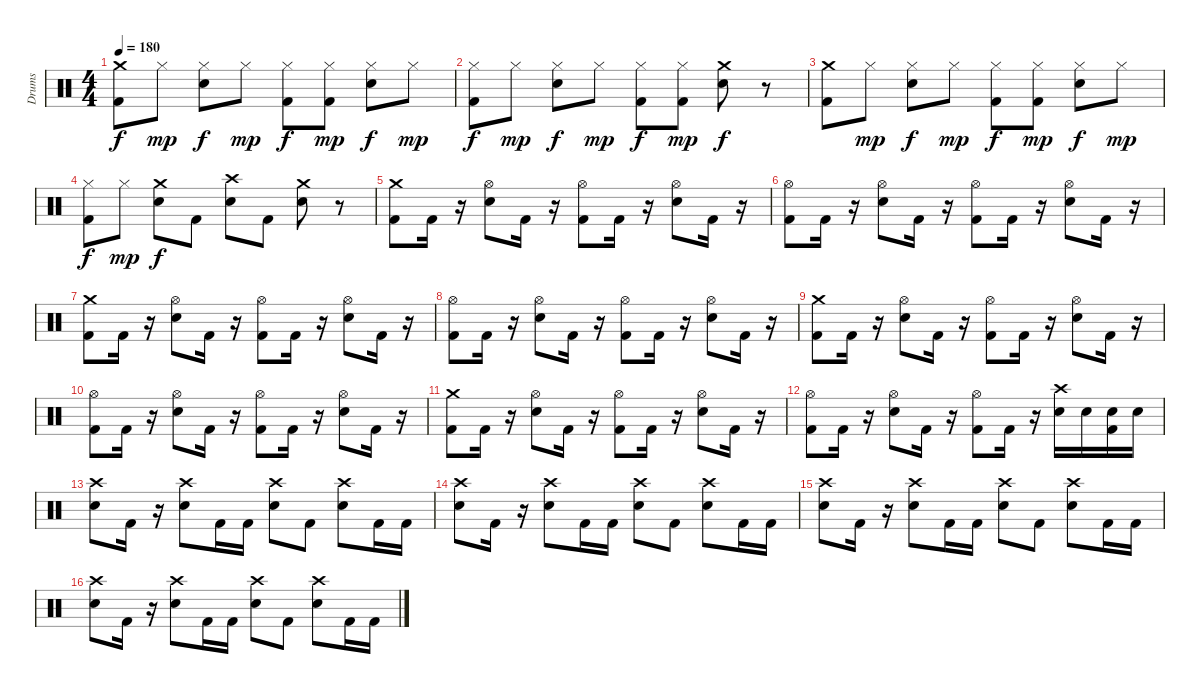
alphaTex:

\track ("Drums" "Drums") {instrument percussion}
\staff {score}
\articulation defaults
\ts (4 4)
\tempo 180
\clef neutral
\ks c
("Kick (hit) 2" "Crash medium (hit)").8{dy f} "Hi-Hat (closed)".8{dy mp} ("Electric Snare (hit)" "Hi-Hat (closed)").8{dy f} "Hi-Hat (closed)".8{dy mp} ("Kick (hit) 2" "Hi-Hat (closed)").8{dy f} ("Kick (hit) 2" "Hi-Hat (closed)").8{dy mp} ("Electric Snare (hit)" "Hi-Hat (closed)").8{dy f} "Hi-Hat (closed)".8{dy mp} |
("Kick (hit) 2" "Hi-Hat (closed)").8{dy f} "Hi-Hat (closed)".8{dy mp} ("Electric Snare (hit)" "Hi-Hat (closed)").8{dy f} "Hi-Hat (closed)".8{dy mp} ("Kick (hit) 2" "Hi-Hat (closed)").8{dy f} ("Kick (hit) 2" "Hi-Hat (closed)").8{dy mp} ("Electric Snare (hit)" "Crash medium (hit)").8{dy f} r.8 |
("Kick (hit) 2" "Crash medium (hit)").8 "Hi-Hat (closed)".8{dy mp} ("Electric Snare (hit)" "Hi-Hat (closed)").8{dy f} "Hi-Hat (closed)".8{dy mp} ("Kick (hit) 2" "Hi-Hat (closed)").8{dy f} ("Kick (hit) 2" "Hi-Hat (closed)").8{dy mp} ("Electric Snare (hit)" "Hi-Hat (closed)").8{dy f} "Hi-Hat (closed)".8{dy mp} |
("Kick (hit) 2" "Hi-Hat (closed)").8{dy f} "Hi-Hat (closed)".8{dy mp} ("Electric Snare (hit)" "Crash medium (hit)").8{dy f} "Kick (hit) 2".8 ("Crash high (hit)" "Electric Snare (hit)").8 "Kick (hit) 2".8 ("Crash medium (hit)" "Electric Snare (hit)").8 r.8 |
("Kick (hit) 2" "Crash medium (hit)").8 "Kick (hit) 2".16 r.16 ("Electric Snare (hit)" "Hi-Hat (open)").8 "Kick (hit) 2".16 r.16 ("Kick (hit) 2" "Hi-Hat (open)").8 "Kick (hit) 2".16 r.16 ("Electric Snare (hit)" "Hi-Hat (open)").8 "Kick (hit) 2".16 r.16 |
("Kick (hit) 2" "Hi-Hat (open)").8 "Kick (hit) 2".16 r.16 ("Electric Snare (hit)" "Hi-Hat (open)").8 "Kick (hit) 2".16 r.16 ("Kick (hit) 2" "Hi-Hat (open)").8 "Kick (hit) 2".16 r.16 ("Electric Snare (hit)" "Hi-Hat (open)").8 "Kick (hit) 2".16 r.16 |
("Kick (hit) 2" "Crash medium (hit)").8 "Kick (hit) 2".16 r.16 ("Electric Snare (hit)" "Hi-Hat (open)").8 "Kick (hit) 2".16 r.16 ("Kick (hit) 2" "Hi-Hat (open)").8 "Kick (hit) 2".16 r.16 ("Electric Snare (hit)" "Hi-Hat (open)").8 "Kick (hit) 2".16 r.16 |
("Kick (hit) 2" "Hi-Hat (open)").8 "Kick (hit) 2".16 r.16 ("Electric Snare (hit)" "Hi-Hat (open)").8 "Kick (hit) 2".16 r.16 ("Kick (hit) 2" "Hi-Hat (open)").8 "Kick (hit) 2".16 r.16 ("Electric Snare (hit)" "Hi-Hat (open)").8 "Kick (hit) 2".16 r.16 |
("Kick (hit) 2" "Crash medium (hit)").8 "Kick (hit) 2".16 r.16 ("Electric Snare (hit)" "Hi-Hat (open)").8 "Kick (hit) 2".16 r.16 ("Kick (hit) 2" "Hi-Hat (open)").8 "Kick (hit) 2".16 r.16 ("Electric Snare (hit)" "Hi-Hat (open)").8 "Kick (hit) 2".16 r.16 |
("Kick (hit) 2" "Hi-Hat (open)").8 "Kick (hit) 2".16 r.16 ("Electric Snare (hit)" "Hi-Hat (open)").8 "Kick (hit) 2".16 r.16 ("Kick (hit) 2" "Hi-Hat (open)").8 "Kick (hit) 2".16 r.16 ("Electric Snare (hit)" "Hi-Hat (open)").8 "Kick (hit) 2".16 r.16 |
("Kick (hit) 2" "Crash medium (hit)").8 "Kick (hit) 2".16 r.16 ("Electric Snare (hit)" "Hi-Hat (open)").8 "Kick (hit) 2".16 r.16 ("Kick (hit) 2" "Hi-Hat (open)").8 "Kick (hit) 2".16 r.16 ("Electric Snare (hit)" "Hi-Hat (open)").8 "Kick (hit) 2".16 r.16 |
("Kick (hit) 2" "Hi-Hat (open)").8 "Kick (hit) 2".16 r.16 ("Electric Snare (hit)" "Hi-Hat (open)").8 "Kick (hit) 2".16 r.16 ("Kick (hit) 2" "Hi-Hat (open)").8 "Kick (hit) 2".16 r.16 ("Electric Snare (hit)" "Crash high (hit)").16 "Electric Snare (hit)".16 ("Electric Snare (hit)" "Kick (hit) 2").16 "Electric Snare (hit)".16 |
("Electric Snare (hit)" "Crash high (hit)").8 "Kick (hit) 2".16 r.16 ("Electric Snare (hit)" "Crash high (hit)").8 "Kick (hit) 2".16 "Kick (hit) 2".16 ("Electric Snare (hit)" "Crash high (hit)").8 "Kick (hit) 2".8 ("Electric Snare (hit)" "Crash high (hit)").8 "Kick (hit) 2".16 "Kick (hit) 2".16 |
("Electric Snare (hit)" "Crash high (hit)").8 "Kick (hit) 2".16 r.16 ("Electric Snare (hit)" "Crash high (hit)").8 "Kick (hit) 2".16 "Kick (hit) 2".16 ("Electric Snare (hit)" "Crash high (hit)").8 "Kick (hit) 2".8 ("Electric Snare (hit)" "Crash high (hit)").8 "Kick (hit) 2".16 "Kick (hit) 2".16 |
("Electric Snare (hit)" "Crash high (hit)").8 "Kick (hit) 2".16 r.16 ("Electric Snare (hit)" "Crash high (hit)").8 "Kick (hit) 2".16 "Kick (hit) 2".16 ("Electric Snare (hit)" "Crash high (hit)").8 "Kick (hit) 2".8 ("Electric Snare (hit)" "Crash high (hit)").8 "Kick (hit) 2".16 "Kick (hit) 2".16 |
("Electric Snare (hit)" "Crash high (hit)").8 "Kick (hit) 2".16 r.16 ("Electric Snare (hit)" "Crash high (hit)").8 "Kick (hit) 2".16 "Kick (hit) 2".16 ("Electric Snare (hit)" "Crash high (hit)").8 "Kick (hit) 2".8 ("Electric Snare (hit)" "Crash high (hit)").8 "Kick (hit) 2".16 "Kick (hit) 2".16
